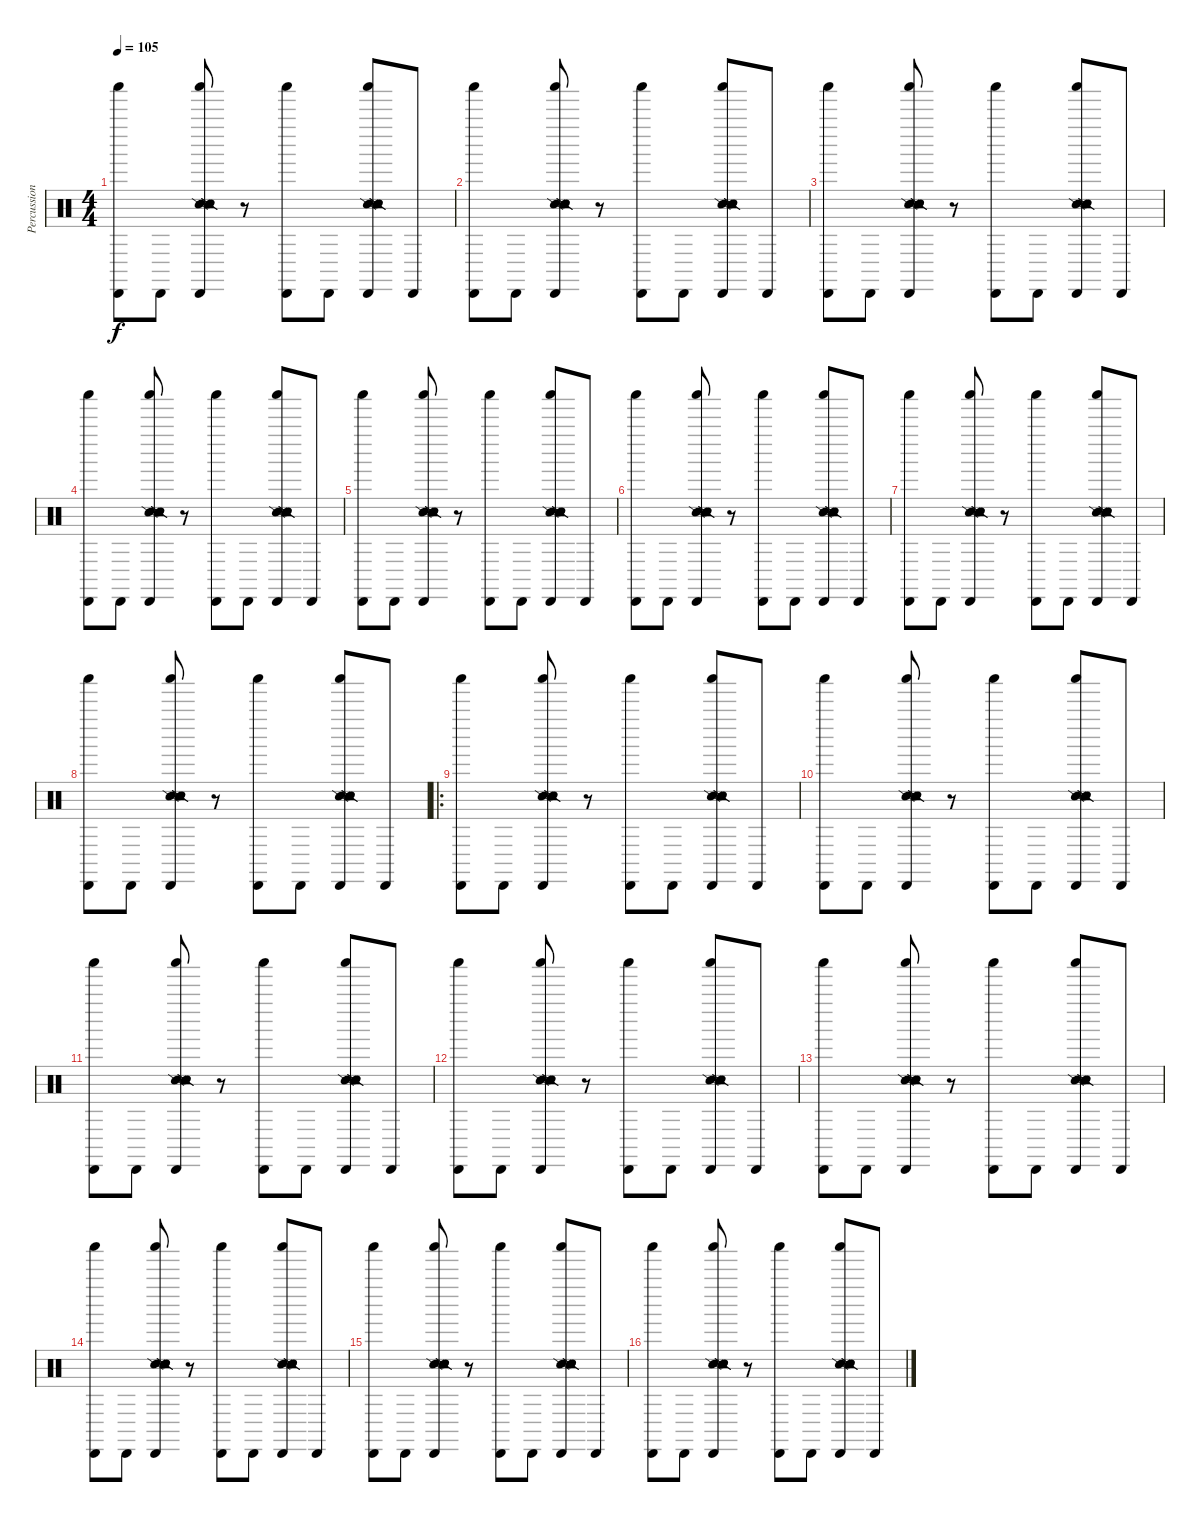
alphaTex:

\track ("Percussions" "Percussion") {instrument percussion}
\staff {score}
\articulation defaults
\ts (4 4)
\tempo 105
\clef neutral
\ks c
("Cabasa (hit)" "Shaker (hit)").8{dy f} "Cabasa (hit)".8 ("Cabasa (hit)" "Shaker (hit)" "Snare (side stick) 2" "Snare (side stick) 2" "Snare (side stick) 2" "Tambourine (hit)").8 r.8 ("Cabasa (hit)" "Shaker (hit)").8 "Cabasa (hit)".8 ("Cabasa (hit)" "Shaker (hit)" "Snare (side stick) 2" "Snare (side stick) 2" "Snare (side stick) 2" "Tambourine (hit)").8 "Cabasa (hit)".8 |
("Cabasa (hit)" "Shaker (hit)").8 "Cabasa (hit)".8 ("Cabasa (hit)" "Shaker (hit)" "Snare (side stick) 2" "Snare (side stick) 2" "Snare (side stick) 2" "Tambourine (hit)").8 r.8 ("Cabasa (hit)" "Shaker (hit)").8 "Cabasa (hit)".8 ("Cabasa (hit)" "Shaker (hit)" "Snare (side stick) 2" "Snare (side stick) 2" "Snare (side stick) 2" "Tambourine (hit)").8 "Cabasa (hit)".8 |
("Cabasa (hit)" "Shaker (hit)").8 "Cabasa (hit)".8 ("Cabasa (hit)" "Shaker (hit)" "Snare (side stick) 2" "Snare (side stick) 2" "Snare (side stick) 2" "Tambourine (hit)").8 r.8 ("Cabasa (hit)" "Shaker (hit)").8 "Cabasa (hit)".8 ("Cabasa (hit)" "Shaker (hit)" "Snare (side stick) 2" "Snare (side stick) 2" "Snare (side stick) 2" "Tambourine (hit)").8 "Cabasa (hit)".8 |
("Cabasa (hit)" "Shaker (hit)").8 "Cabasa (hit)".8 ("Cabasa (hit)" "Shaker (hit)" "Snare (side stick) 2" "Snare (side stick) 2" "Snare (side stick) 2" "Tambourine (hit)").8 r.8 ("Cabasa (hit)" "Shaker (hit)").8 "Cabasa (hit)".8 ("Cabasa (hit)" "Shaker (hit)" "Snare (side stick) 2" "Snare (side stick) 2" "Snare (side stick) 2" "Tambourine (hit)").8 "Cabasa (hit)".8 |
("Cabasa (hit)" "Shaker (hit)").8 "Cabasa (hit)".8 ("Cabasa (hit)" "Shaker (hit)" "Snare (side stick) 2" "Snare (side stick) 2" "Snare (side stick) 2" "Tambourine (hit)").8 r.8 ("Cabasa (hit)" "Shaker (hit)").8 "Cabasa (hit)".8 ("Cabasa (hit)" "Shaker (hit)" "Snare (side stick) 2" "Snare (side stick) 2" "Snare (side stick) 2" "Tambourine (hit)").8 "Cabasa (hit)".8 |
("Cabasa (hit)" "Shaker (hit)").8 "Cabasa (hit)".8 ("Cabasa (hit)" "Shaker (hit)" "Snare (side stick) 2" "Snare (side stick) 2" "Snare (side stick) 2" "Tambourine (hit)").8 r.8 ("Cabasa (hit)" "Shaker (hit)").8 "Cabasa (hit)".8 ("Cabasa (hit)" "Shaker (hit)" "Snare (side stick) 2" "Snare (side stick) 2" "Snare (side stick) 2" "Tambourine (hit)").8 "Cabasa (hit)".8 |
("Cabasa (hit)" "Shaker (hit)").8 "Cabasa (hit)".8 ("Cabasa (hit)" "Shaker (hit)" "Snare (side stick) 2" "Snare (side stick) 2" "Snare (side stick) 2" "Tambourine (hit)").8 r.8 ("Cabasa (hit)" "Shaker (hit)").8 "Cabasa (hit)".8 ("Cabasa (hit)" "Shaker (hit)" "Snare (side stick) 2" "Snare (side stick) 2" "Snare (side stick) 2" "Tambourine (hit)").8 "Cabasa (hit)".8 |
("Cabasa (hit)" "Shaker (hit)").8 "Cabasa (hit)".8 ("Cabasa (hit)" "Shaker (hit)" "Snare (side stick) 2" "Snare (side stick) 2" "Snare (side stick) 2" "Tambourine (hit)").8 r.8 ("Cabasa (hit)" "Shaker (hit)").8 "Cabasa (hit)".8 ("Cabasa (hit)" "Shaker (hit)" "Snare (side stick) 2" "Snare (side stick) 2" "Snare (side stick) 2" "Tambourine (hit)").8 "Cabasa (hit)".8 |
\ro
("Cabasa (hit)" "Shaker (hit)").8 "Cabasa (hit)".8 ("Cabasa (hit)" "Shaker (hit)" "Snare (side stick) 2" "Snare (side stick) 2" "Snare (side stick) 2" "Tambourine (hit)").8 r.8 ("Cabasa (hit)" "Shaker (hit)").8 "Cabasa (hit)".8 ("Cabasa (hit)" "Shaker (hit)" "Snare (side stick) 2" "Snare (side stick) 2" "Snare (side stick) 2" "Tambourine (hit)").8 "Cabasa (hit)".8 |
("Cabasa (hit)" "Shaker (hit)").8 "Cabasa (hit)".8 ("Cabasa (hit)" "Shaker (hit)" "Snare (side stick) 2" "Snare (side stick) 2" "Snare (side stick) 2" "Tambourine (hit)").8 r.8 ("Cabasa (hit)" "Shaker (hit)").8 "Cabasa (hit)".8 ("Cabasa (hit)" "Shaker (hit)" "Snare (side stick) 2" "Snare (side stick) 2" "Snare (side stick) 2" "Tambourine (hit)").8 "Cabasa (hit)".8 |
("Cabasa (hit)" "Shaker (hit)").8 "Cabasa (hit)".8 ("Cabasa (hit)" "Shaker (hit)" "Snare (side stick) 2" "Snare (side stick) 2" "Snare (side stick) 2" "Tambourine (hit)").8 r.8 ("Cabasa (hit)" "Shaker (hit)").8 "Cabasa (hit)".8 ("Cabasa (hit)" "Shaker (hit)" "Snare (side stick) 2" "Snare (side stick) 2" "Snare (side stick) 2" "Tambourine (hit)").8 "Cabasa (hit)".8 |
("Cabasa (hit)" "Shaker (hit)").8 "Cabasa (hit)".8 ("Cabasa (hit)" "Shaker (hit)" "Snare (side stick) 2" "Snare (side stick) 2" "Snare (side stick) 2" "Tambourine (hit)").8 r.8 ("Cabasa (hit)" "Shaker (hit)").8 "Cabasa (hit)".8 ("Cabasa (hit)" "Shaker (hit)" "Snare (side stick) 2" "Snare (side stick) 2" "Snare (side stick) 2" "Tambourine (hit)").8 "Cabasa (hit)".8 |
("Cabasa (hit)" "Shaker (hit)").8 "Cabasa (hit)".8 ("Cabasa (hit)" "Shaker (hit)" "Snare (side stick) 2" "Snare (side stick) 2" "Snare (side stick) 2" "Tambourine (hit)").8 r.8 ("Cabasa (hit)" "Shaker (hit)").8 "Cabasa (hit)".8 ("Cabasa (hit)" "Shaker (hit)" "Snare (side stick) 2" "Snare (side stick) 2" "Snare (side stick) 2" "Tambourine (hit)").8 "Cabasa (hit)".8 |
("Cabasa (hit)" "Shaker (hit)").8 "Cabasa (hit)".8 ("Cabasa (hit)" "Shaker (hit)" "Snare (side stick) 2" "Snare (side stick) 2" "Snare (side stick) 2" "Tambourine (hit)").8 r.8 ("Cabasa (hit)" "Shaker (hit)").8 "Cabasa (hit)".8 ("Cabasa (hit)" "Shaker (hit)" "Snare (side stick) 2" "Snare (side stick) 2" "Snare (side stick) 2" "Tambourine (hit)").8 "Cabasa (hit)".8 |
("Cabasa (hit)" "Shaker (hit)").8 "Cabasa (hit)".8 ("Cabasa (hit)" "Shaker (hit)" "Snare (side stick) 2" "Snare (side stick) 2" "Snare (side stick) 2" "Tambourine (hit)").8 r.8 ("Cabasa (hit)" "Shaker (hit)").8 "Cabasa (hit)".8 ("Cabasa (hit)" "Shaker (hit)" "Snare (side stick) 2" "Snare (side stick) 2" "Snare (side stick) 2" "Tambourine (hit)").8 "Cabasa (hit)".8 |
("Cabasa (hit)" "Shaker (hit)").8 "Cabasa (hit)".8 ("Cabasa (hit)" "Shaker (hit)" "Snare (side stick) 2" "Snare (side stick) 2" "Snare (side stick) 2" "Tambourine (hit)").8 r.8 ("Cabasa (hit)" "Shaker (hit)").8 "Cabasa (hit)".8 ("Cabasa (hit)" "Shaker (hit)" "Snare (side stick) 2" "Snare (side stick) 2" "Snare (side stick) 2" "Tambourine (hit)").8 "Cabasa (hit)".8
